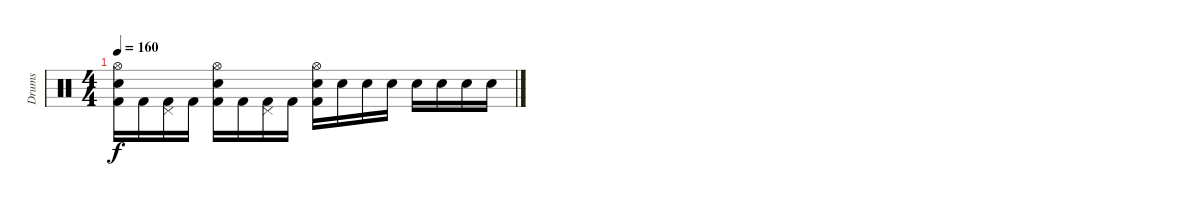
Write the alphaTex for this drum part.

\track ("Drums" "Drums") {instrument percussion}
\staff {score}
\articulation defaults
\ts (4 4)
\tempo 160
\clef neutral
\ks c
("Hi-Hat (open)" "Electric Snare (hit)" "Kick (hit) 2").16{dy f} "Kick (hit) 2".16 ("Pedal Hi-Hat (hit)" "Kick (hit) 2").16 "Kick (hit) 2".16 ("Hi-Hat (open)" "Snare (hit) 2" "Kick (hit) 2").16 "Kick (hit) 2".16 ("Pedal Hi-Hat (hit)" "Kick (hit) 2").16 "Kick (hit) 2".16 ("Hi-Hat (open)" "Snare (hit) 2" "Kick (hit) 2").16 "Snare (hit) 2".16 "Snare (hit) 2".16 "Snare (hit) 2".16 "Snare (hit) 2".16 "Snare (hit) 2".16 "Snare (hit) 2".16 "Snare (hit) 2".16
